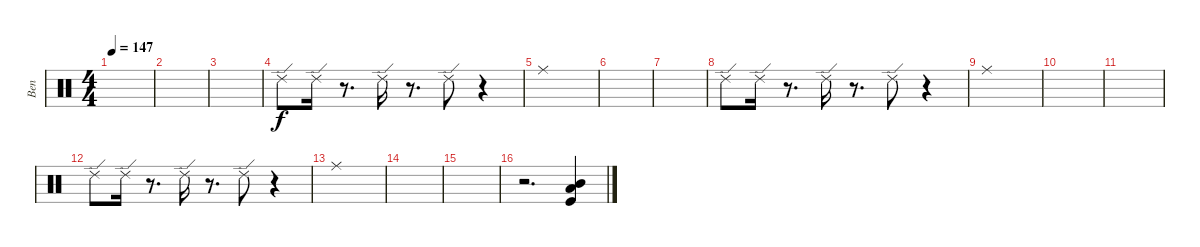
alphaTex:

\track ("Ben" "Ben") {instrument percussion}
\staff {score}
\articulation defaults
\ts (4 4)
\tempo 147
\clef neutral
\ks c
|
|
|
"Ride (edge) 2".8 "Ride (edge) 2".16 r.8{d} "Ride (edge) 2".16 r.8{d} "Ride (edge) 2".8 r.4 |
"Ride (middle)".1 |
|
|
"Ride (edge) 2".8 "Ride (edge) 2".16 r.8{d} "Ride (edge) 2".16 r.8{d} "Ride (edge) 2".8 r.4 |
"Ride (middle)".1 |
|
|
"Ride (edge) 2".8 "Ride (edge) 2".16 r.8{d} "Ride (edge) 2".16 r.8{d} "Ride (edge) 2".8 r.4 |
"Ride (middle)".1 |
|
|
r.2{d} ("Mid Tom (hit)" "Kick (hit)" "Low Tom (hit)").4
